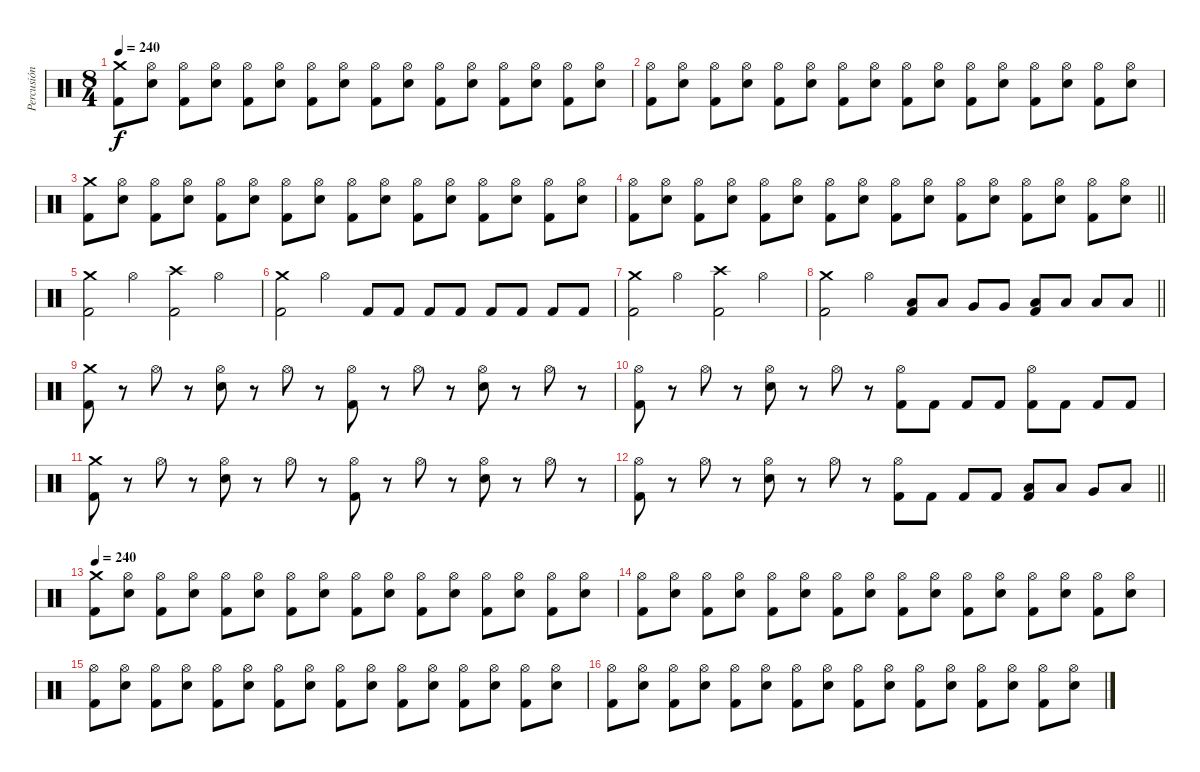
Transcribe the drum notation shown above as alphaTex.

\track ("Percusión" "Percusión") {instrument percussion}
\staff {score}
\articulation defaults
\ts (8 4)
\tempo 240
\clef neutral
\ks c
("Crash medium (hit)" "Kick (hit) 2").8{dy f} ("Hi-Hat (open)" "Electric Snare (hit)").8 ("Hi-Hat (open)" "Kick (hit) 2").8 ("Hi-Hat (open)" "Electric Snare (hit)").8 ("Hi-Hat (open)" "Kick (hit) 2").8 ("Hi-Hat (open)" "Electric Snare (hit)").8 ("Hi-Hat (open)" "Kick (hit) 2").8 ("Hi-Hat (open)" "Electric Snare (hit)").8 ("Hi-Hat (open)" "Kick (hit) 2").8 ("Hi-Hat (open)" "Electric Snare (hit)").8 ("Hi-Hat (open)" "Kick (hit) 2").8 ("Hi-Hat (open)" "Electric Snare (hit)").8 ("Hi-Hat (open)" "Kick (hit) 2").8 ("Hi-Hat (open)" "Electric Snare (hit)").8 ("Hi-Hat (open)" "Kick (hit) 2").8 ("Hi-Hat (open)" "Electric Snare (hit)").8 |
("Hi-Hat (open)" "Kick (hit) 2").8 ("Hi-Hat (open)" "Electric Snare (hit)").8 ("Hi-Hat (open)" "Kick (hit) 2").8 ("Hi-Hat (open)" "Electric Snare (hit)").8 ("Hi-Hat (open)" "Kick (hit) 2").8 ("Hi-Hat (open)" "Electric Snare (hit)").8 ("Hi-Hat (open)" "Kick (hit) 2").8 ("Hi-Hat (open)" "Electric Snare (hit)").8 ("Hi-Hat (open)" "Kick (hit) 2").8 ("Hi-Hat (open)" "Electric Snare (hit)").8 ("Hi-Hat (open)" "Kick (hit) 2").8 ("Hi-Hat (open)" "Electric Snare (hit)").8 ("Hi-Hat (open)" "Kick (hit) 2").8 ("Hi-Hat (open)" "Electric Snare (hit)").8 ("Hi-Hat (open)" "Kick (hit) 2").8 ("Hi-Hat (open)" "Electric Snare (hit)").8 |
("Crash medium (hit)" "Kick (hit) 2").8 ("Hi-Hat (open)" "Electric Snare (hit)").8 ("Hi-Hat (open)" "Kick (hit) 2").8 ("Hi-Hat (open)" "Electric Snare (hit)").8 ("Hi-Hat (open)" "Kick (hit) 2").8 ("Hi-Hat (open)" "Electric Snare (hit)").8 ("Hi-Hat (open)" "Kick (hit) 2").8 ("Hi-Hat (open)" "Electric Snare (hit)").8 ("Hi-Hat (open)" "Kick (hit) 2").8 ("Hi-Hat (open)" "Electric Snare (hit)").8 ("Hi-Hat (open)" "Kick (hit) 2").8 ("Hi-Hat (open)" "Electric Snare (hit)").8 ("Hi-Hat (open)" "Kick (hit) 2").8 ("Hi-Hat (open)" "Electric Snare (hit)").8 ("Hi-Hat (open)" "Kick (hit) 2").8 ("Hi-Hat (open)" "Electric Snare (hit)").8 |
\barLineRight lightlight
("Hi-Hat (open)" "Kick (hit) 2").8 ("Hi-Hat (open)" "Electric Snare (hit)").8 ("Hi-Hat (open)" "Kick (hit) 2").8 ("Hi-Hat (open)" "Electric Snare (hit)").8 ("Hi-Hat (open)" "Kick (hit) 2").8 ("Hi-Hat (open)" "Electric Snare (hit)").8 ("Hi-Hat (open)" "Kick (hit) 2").8 ("Hi-Hat (open)" "Electric Snare (hit)").8 ("Hi-Hat (open)" "Kick (hit) 2").8 ("Hi-Hat (open)" "Electric Snare (hit)").8 ("Hi-Hat (open)" "Kick (hit) 2").8 ("Hi-Hat (open)" "Electric Snare (hit)").8 ("Hi-Hat (open)" "Kick (hit) 2").8 ("Hi-Hat (open)" "Electric Snare (hit)").8 ("Hi-Hat (open)" "Kick (hit) 2").8 ("Hi-Hat (open)" "Electric Snare (hit)").8 |
("Crash medium (hit)" "Kick (hit) 2").2 "Hi-Hat (open)".2 ("Crash high (hit)" "Kick (hit) 2").2 "Hi-Hat (open)".2 |
("Crash medium (hit)" "Kick (hit) 2").2 "Hi-Hat (open)".2 "Kick (hit) 2".8 "Kick (hit) 2".8 "Kick (hit) 2".8 "Kick (hit) 2".8 "Kick (hit) 2".8 "Kick (hit) 2".8 "Kick (hit) 2".8 "Kick (hit) 2".8 |
("Crash medium (hit)" "Kick (hit) 2").2 "Hi-Hat (open)".2 ("Crash high (hit)" "Kick (hit) 2").2 "Hi-Hat (open)".2 |
\barLineRight lightlight
("Crash medium (hit)" "Kick (hit) 2").2 "Hi-Hat (open)".2 ("Low Tom (hit)" "Kick (hit) 2").8 "Low Tom (hit)".8 "Very Low Tom (hit)".8 "Very Low Tom (hit)".8 ("Low Tom (hit)" "Kick (hit) 2").8 "Low Tom (hit)".8 "Low Floor Tom (hit)".8 "Low Floor Tom (hit)".8 |
("Crash medium (hit)" "Kick (hit) 2").8 r.8 "Hi-Hat (open)".8 r.8 ("Hi-Hat (open)" "Electric Snare (hit)").8 r.8 "Hi-Hat (open)".8 r.8 ("Hi-Hat (open)" "Kick (hit) 2").8 r.8 "Hi-Hat (open)".8 r.8 ("Hi-Hat (open)" "Electric Snare (hit)").8 r.8 "Hi-Hat (open)".8 r.8 |
("Hi-Hat (open)" "Kick (hit) 2").8 r.8 "Hi-Hat (open)".8 r.8 ("Hi-Hat (open)" "Electric Snare (hit)").8 r.8 "Hi-Hat (open)".8 r.8 ("Hi-Hat (open)" "Kick (hit) 2").8 "Kick (hit) 2".8 "Kick (hit) 2".8 "Kick (hit) 2".8 ("Hi-Hat (open)" "Kick (hit) 2").8 "Kick (hit) 2".8 "Kick (hit) 2".8 "Kick (hit) 2".8 |
("Crash medium (hit)" "Kick (hit) 2").8 r.8 "Hi-Hat (open)".8 r.8 ("Hi-Hat (open)" "Electric Snare (hit)").8 r.8 "Hi-Hat (open)".8 r.8 ("Hi-Hat (open)" "Kick (hit) 2").8 r.8 "Hi-Hat (open)".8 r.8 ("Hi-Hat (open)" "Electric Snare (hit)").8 r.8 "Hi-Hat (open)".8 r.8 |
\barLineRight lightlight
("Hi-Hat (open)" "Kick (hit) 2").8 r.8 "Hi-Hat (open)".8 r.8 ("Hi-Hat (open)" "Electric Snare (hit)").8 r.8 "Hi-Hat (open)".8 r.8 ("Hi-Hat (open)" "Kick (hit) 2").8 "Kick (hit) 2".8 "Kick (hit) 2".8 "Kick (hit) 2".8 ("Low Tom (hit)" "Kick (hit) 2").8 "Low Tom (hit)".8 "Very Low Tom (hit)".8 "Low Floor Tom (hit)".8 |
\tempo 240
("Crash medium (hit)" "Kick (hit) 2").8 ("Hi-Hat (open)" "Electric Snare (hit)").8 ("Hi-Hat (open)" "Kick (hit) 2").8 ("Hi-Hat (open)" "Electric Snare (hit)").8 ("Hi-Hat (open)" "Kick (hit) 2").8 ("Hi-Hat (open)" "Electric Snare (hit)").8 ("Hi-Hat (open)" "Kick (hit) 2").8 ("Hi-Hat (open)" "Electric Snare (hit)").8 ("Hi-Hat (open)" "Kick (hit) 2").8 ("Hi-Hat (open)" "Electric Snare (hit)").8 ("Hi-Hat (open)" "Kick (hit) 2").8 ("Hi-Hat (open)" "Electric Snare (hit)").8 ("Hi-Hat (open)" "Kick (hit) 2").8 ("Hi-Hat (open)" "Electric Snare (hit)").8 ("Hi-Hat (open)" "Kick (hit) 2").8 ("Hi-Hat (open)" "Electric Snare (hit)").8 |
("Hi-Hat (open)" "Kick (hit) 2").8 ("Hi-Hat (open)" "Electric Snare (hit)").8 ("Hi-Hat (open)" "Kick (hit) 2").8 ("Hi-Hat (open)" "Electric Snare (hit)").8 ("Hi-Hat (open)" "Kick (hit) 2").8 ("Hi-Hat (open)" "Electric Snare (hit)").8 ("Hi-Hat (open)" "Kick (hit) 2").8 ("Hi-Hat (open)" "Electric Snare (hit)").8 ("Hi-Hat (open)" "Kick (hit) 2").8 ("Hi-Hat (open)" "Electric Snare (hit)").8 ("Hi-Hat (open)" "Kick (hit) 2").8 ("Hi-Hat (open)" "Electric Snare (hit)").8 ("Hi-Hat (open)" "Kick (hit) 2").8 ("Hi-Hat (open)" "Electric Snare (hit)").8 ("Hi-Hat (open)" "Kick (hit) 2").8 ("Hi-Hat (open)" "Electric Snare (hit)").8 |
("Hi-Hat (open)" "Kick (hit) 2").8 ("Hi-Hat (open)" "Electric Snare (hit)").8 ("Hi-Hat (open)" "Kick (hit) 2").8 ("Hi-Hat (open)" "Electric Snare (hit)").8 ("Hi-Hat (open)" "Kick (hit) 2").8 ("Hi-Hat (open)" "Electric Snare (hit)").8 ("Hi-Hat (open)" "Kick (hit) 2").8 ("Hi-Hat (open)" "Electric Snare (hit)").8 ("Hi-Hat (open)" "Kick (hit) 2").8 ("Hi-Hat (open)" "Electric Snare (hit)").8 ("Hi-Hat (open)" "Kick (hit) 2").8 ("Hi-Hat (open)" "Electric Snare (hit)").8 ("Hi-Hat (open)" "Kick (hit) 2").8 ("Hi-Hat (open)" "Electric Snare (hit)").8 ("Hi-Hat (open)" "Kick (hit) 2").8 ("Hi-Hat (open)" "Electric Snare (hit)").8 |
("Hi-Hat (open)" "Kick (hit) 2").8 ("Hi-Hat (open)" "Electric Snare (hit)").8 ("Hi-Hat (open)" "Kick (hit) 2").8 ("Hi-Hat (open)" "Electric Snare (hit)").8 ("Hi-Hat (open)" "Kick (hit) 2").8 ("Hi-Hat (open)" "Electric Snare (hit)").8 ("Hi-Hat (open)" "Kick (hit) 2").8 ("Hi-Hat (open)" "Electric Snare (hit)").8 ("Hi-Hat (open)" "Kick (hit) 2").8 ("Hi-Hat (open)" "Electric Snare (hit)").8 ("Hi-Hat (open)" "Kick (hit) 2").8 ("Hi-Hat (open)" "Electric Snare (hit)").8 ("Hi-Hat (open)" "Kick (hit) 2").8 ("Hi-Hat (open)" "Electric Snare (hit)").8 ("Hi-Hat (open)" "Kick (hit) 2").8 ("Hi-Hat (open)" "Electric Snare (hit)").8
